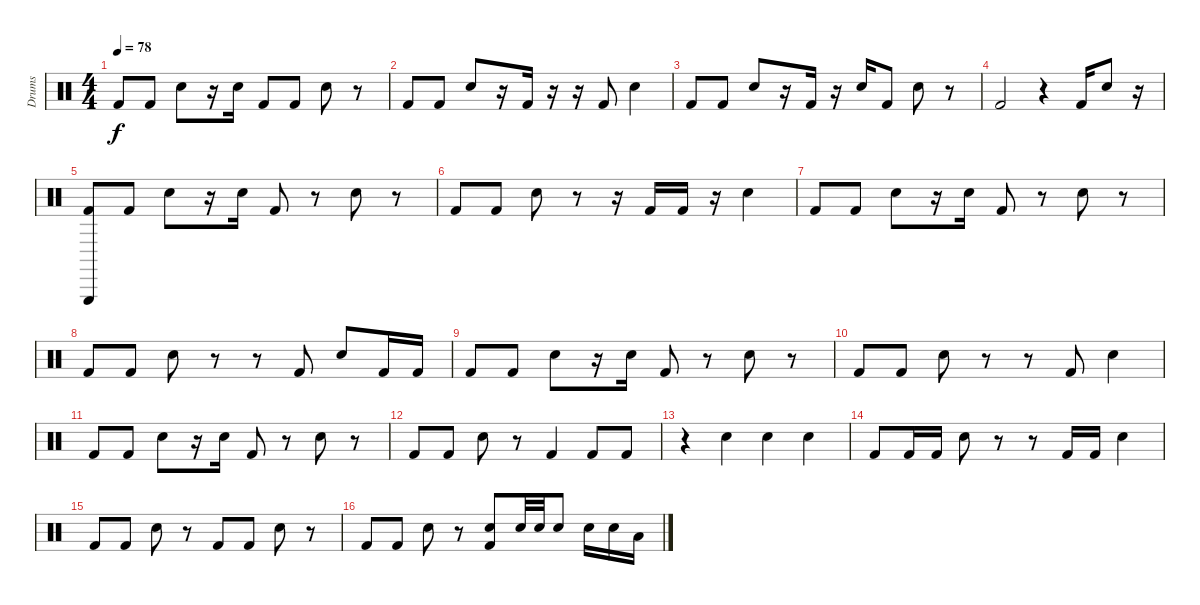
\track ("Drums" "Drums") {instrument percussion}
\staff {score}
\articulation defaults
\ts (4 4)
\tempo 78
\clef neutral
\ks c "Kick (hit) 2".8{dy f} "Kick (hit) 2".8 "Electric Snare (hit)".8
r.16 "Electric Snare (hit)".16 "Kick (hit) 2".8 "Kick (hit) 2".8 "Electric Snare (hit)".8 r.8 |
"Kick (hit) 2".8 "Kick (hit) 2".8 "Electric Snare (hit)".8 r.16 "Kick (hit) 2".16 r.16 r.16 "Kick (hit) 2".8 "Electric Snare (hit)".4 |
"Kick (hit) 2".8 "Kick (hit) 2".8 "Electric Snare (hit)".8 r.16 "Kick (hit) 2".16 r.16 "Electric Snare (hit)".16 "Kick (hit) 2".8 "Electric Snare (hit)".8 r.8 |
"Kick (hit) 2".2 r.4 "Kick (hit) 2".16 "Electric Snare (hit)".8 r.16 |
("Triangle (hit)" "Kick (hit) 2").8 "Kick (hit) 2".8 "Electric Snare (hit)".8 r.16 "Electric Snare (hit)".16 "Kick (hit) 2".8 r.8 "Electric Snare (hit)".8 r.8 |
"Kick (hit) 2".8 "Kick (hit) 2".8 "Electric Snare (hit)".8 r.8 r.16 "Kick (hit) 2".16 "Kick (hit) 2".16 r.16 "Electric Snare (hit)".4 |
"Kick (hit) 2".8 "Kick (hit) 2".8 "Electric Snare (hit)".8 r.16 "Electric Snare (hit)".16 "Kick (hit) 2".8 r.8 "Electric Snare (hit)".8 r.8 |
"Kick (hit) 2".8 "Kick (hit) 2".8 "Electric Snare (hit)".8 r.8 r.8 "Kick (hit) 2".8 "Electric Snare (hit)".8 "Kick (hit) 2".16 "Kick (hit) 2".16 |
"Kick (hit) 2".8 "Kick (hit) 2".8 "Electric Snare (hit)".8 r.16 "Electric Snare (hit)".16 "Kick (hit) 2".8 r.8 "Electric Snare (hit)".8 r.8 |
"Kick (hit) 2".8 "Kick (hit) 2".8 "Electric Snare (hit)".8 r.8 r.8 "Kick (hit) 2".8 "Electric Snare (hit)".4 |
"Kick (hit) 2".8 "Kick (hit) 2".8 "Electric Snare (hit)".8 r.16 "Electric Snare (hit)".16 "Kick (hit) 2".8 r.8 "Electric Snare (hit)".8 r.8 |
"Kick (hit) 2".8 "Kick (hit) 2".8 "Electric Snare (hit)".8 r.8 "Kick (hit) 2".4 "Kick (hit) 2".8 "Kick (hit) 2".8 |
r.4 "Electric Snare (hit)".4 "Electric Snare (hit)".4 "Electric Snare (hit)".4 |
"Kick (hit) 2".8 "Kick (hit) 2".16 "Kick (hit) 2".16 "Electric Snare (hit)".8 r.8 r.8 "Kick (hit) 2".16 "Kick (hit) 2".16 "Electric Snare (hit)".4 |
"Kick (hit) 2".8 "Kick (hit) 2".8 "Electric Snare (hit)".8 r.8 "Kick (hit) 2".8 "Kick (hit) 2".8 "Electric Snare (hit)".8 r.8 |
"Kick (hit) 2".8 "Kick (hit) 2".8 "Electric Snare (hit)".8 r.8 ("Electric Snare (hit)" "Kick (hit) 2").8 "Electric Snare (hit)".32 "Electric Snare (hit)".32 "Electric Snare (hit)".8 "Electric Snare (hit)".16 "Electric Snare (hit)".16 "Low Floor Tom (hit)".16
